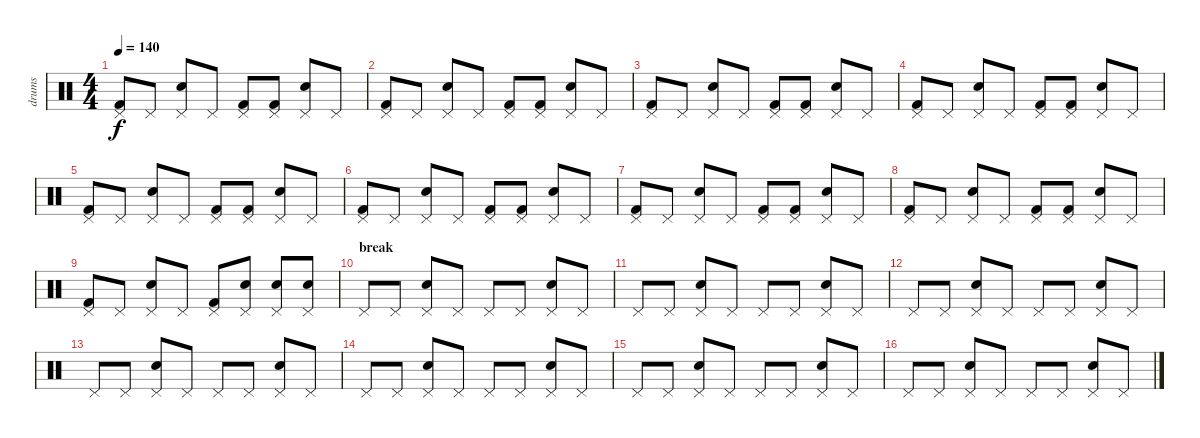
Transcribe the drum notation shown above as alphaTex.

\track ("drums" "drums") {instrument percussion}
\staff {score}
\articulation defaults
\ts (4 4)
\tempo 140
\clef neutral
\ks c
("Kick (hit) 2" "Pedal Hi-Hat (hit)").8{dy f} "Pedal Hi-Hat (hit)".8 ("Snare (hit) 2" "Pedal Hi-Hat (hit)").8 "Pedal Hi-Hat (hit)".8 ("Kick (hit) 2" "Pedal Hi-Hat (hit)").8 ("Kick (hit) 2" "Pedal Hi-Hat (hit)").8 ("Snare (hit) 2" "Pedal Hi-Hat (hit)").8 "Pedal Hi-Hat (hit)".8 |
("Kick (hit) 2" "Pedal Hi-Hat (hit)").8 "Pedal Hi-Hat (hit)".8 ("Snare (hit) 2" "Pedal Hi-Hat (hit)").8 "Pedal Hi-Hat (hit)".8 ("Kick (hit) 2" "Pedal Hi-Hat (hit)").8 ("Kick (hit) 2" "Pedal Hi-Hat (hit)").8 ("Snare (hit) 2" "Pedal Hi-Hat (hit)").8 "Pedal Hi-Hat (hit)".8 |
("Kick (hit) 2" "Pedal Hi-Hat (hit)").8 "Pedal Hi-Hat (hit)".8 ("Snare (hit) 2" "Pedal Hi-Hat (hit)").8 "Pedal Hi-Hat (hit)".8 ("Kick (hit) 2" "Pedal Hi-Hat (hit)").8 ("Kick (hit) 2" "Pedal Hi-Hat (hit)").8 ("Snare (hit) 2" "Pedal Hi-Hat (hit)").8 "Pedal Hi-Hat (hit)".8 |
("Kick (hit) 2" "Pedal Hi-Hat (hit)").8 "Pedal Hi-Hat (hit)".8 ("Snare (hit) 2" "Pedal Hi-Hat (hit)").8 "Pedal Hi-Hat (hit)".8 ("Kick (hit) 2" "Pedal Hi-Hat (hit)").8 ("Kick (hit) 2" "Pedal Hi-Hat (hit)").8 ("Snare (hit) 2" "Pedal Hi-Hat (hit)").8 "Pedal Hi-Hat (hit)".8 |
("Kick (hit) 2" "Pedal Hi-Hat (hit)").8 "Pedal Hi-Hat (hit)".8 ("Snare (hit) 2" "Pedal Hi-Hat (hit)").8 "Pedal Hi-Hat (hit)".8 ("Kick (hit) 2" "Pedal Hi-Hat (hit)").8 ("Kick (hit) 2" "Pedal Hi-Hat (hit)").8 ("Snare (hit) 2" "Pedal Hi-Hat (hit)").8 "Pedal Hi-Hat (hit)".8 |
("Kick (hit) 2" "Pedal Hi-Hat (hit)").8 "Pedal Hi-Hat (hit)".8 ("Snare (hit) 2" "Pedal Hi-Hat (hit)").8 "Pedal Hi-Hat (hit)".8 ("Kick (hit) 2" "Pedal Hi-Hat (hit)").8 ("Kick (hit) 2" "Pedal Hi-Hat (hit)").8 ("Snare (hit) 2" "Pedal Hi-Hat (hit)").8 "Pedal Hi-Hat (hit)".8 |
("Kick (hit) 2" "Pedal Hi-Hat (hit)").8 "Pedal Hi-Hat (hit)".8 ("Snare (hit) 2" "Pedal Hi-Hat (hit)").8 "Pedal Hi-Hat (hit)".8 ("Kick (hit) 2" "Pedal Hi-Hat (hit)").8 ("Kick (hit) 2" "Pedal Hi-Hat (hit)").8 ("Snare (hit) 2" "Pedal Hi-Hat (hit)").8 "Pedal Hi-Hat (hit)".8 |
("Kick (hit) 2" "Pedal Hi-Hat (hit)").8 "Pedal Hi-Hat (hit)".8 ("Snare (hit) 2" "Pedal Hi-Hat (hit)").8 "Pedal Hi-Hat (hit)".8 ("Kick (hit) 2" "Pedal Hi-Hat (hit)").8 ("Kick (hit) 2" "Pedal Hi-Hat (hit)").8 ("Snare (hit) 2" "Pedal Hi-Hat (hit)").8 "Pedal Hi-Hat (hit)".8 |
("Kick (hit) 2" "Pedal Hi-Hat (hit)").8 "Pedal Hi-Hat (hit)".8 ("Snare (hit) 2" "Pedal Hi-Hat (hit)").8 "Pedal Hi-Hat (hit)".8 ("Kick (hit) 2" "Pedal Hi-Hat (hit)").8 ("Snare (hit) 2" "Pedal Hi-Hat (hit)").8 ("Snare (hit) 2" "Pedal Hi-Hat (hit)").8 ("Snare (hit) 2" "Pedal Hi-Hat (hit)").8 |
\section ("" "break")
"Pedal Hi-Hat (hit)".8 "Pedal Hi-Hat (hit)".8 ("Snare (hit) 2" "Pedal Hi-Hat (hit)").8 "Pedal Hi-Hat (hit)".8 "Pedal Hi-Hat (hit)".8 "Pedal Hi-Hat (hit)".8 ("Snare (hit) 2" "Pedal Hi-Hat (hit)").8 "Pedal Hi-Hat (hit)".8 |
"Pedal Hi-Hat (hit)".8 "Pedal Hi-Hat (hit)".8 ("Snare (hit) 2" "Pedal Hi-Hat (hit)").8 "Pedal Hi-Hat (hit)".8 "Pedal Hi-Hat (hit)".8 "Pedal Hi-Hat (hit)".8 ("Snare (hit) 2" "Pedal Hi-Hat (hit)").8 "Pedal Hi-Hat (hit)".8 |
"Pedal Hi-Hat (hit)".8 "Pedal Hi-Hat (hit)".8 ("Snare (hit) 2" "Pedal Hi-Hat (hit)").8 "Pedal Hi-Hat (hit)".8 "Pedal Hi-Hat (hit)".8 "Pedal Hi-Hat (hit)".8 ("Snare (hit) 2" "Pedal Hi-Hat (hit)").8 "Pedal Hi-Hat (hit)".8 |
"Pedal Hi-Hat (hit)".8 "Pedal Hi-Hat (hit)".8 ("Snare (hit) 2" "Pedal Hi-Hat (hit)").8 "Pedal Hi-Hat (hit)".8 "Pedal Hi-Hat (hit)".8 "Pedal Hi-Hat (hit)".8 ("Snare (hit) 2" "Pedal Hi-Hat (hit)").8 "Pedal Hi-Hat (hit)".8 |
"Pedal Hi-Hat (hit)".8 "Pedal Hi-Hat (hit)".8 ("Snare (hit) 2" "Pedal Hi-Hat (hit)").8 "Pedal Hi-Hat (hit)".8 "Pedal Hi-Hat (hit)".8 "Pedal Hi-Hat (hit)".8 ("Snare (hit) 2" "Pedal Hi-Hat (hit)").8 "Pedal Hi-Hat (hit)".8 |
"Pedal Hi-Hat (hit)".8 "Pedal Hi-Hat (hit)".8 ("Snare (hit) 2" "Pedal Hi-Hat (hit)").8 "Pedal Hi-Hat (hit)".8 "Pedal Hi-Hat (hit)".8 "Pedal Hi-Hat (hit)".8 ("Snare (hit) 2" "Pedal Hi-Hat (hit)").8 "Pedal Hi-Hat (hit)".8 |
"Pedal Hi-Hat (hit)".8 "Pedal Hi-Hat (hit)".8 ("Snare (hit) 2" "Pedal Hi-Hat (hit)").8 "Pedal Hi-Hat (hit)".8 "Pedal Hi-Hat (hit)".8 "Pedal Hi-Hat (hit)".8 ("Snare (hit) 2" "Pedal Hi-Hat (hit)").8 "Pedal Hi-Hat (hit)".8
